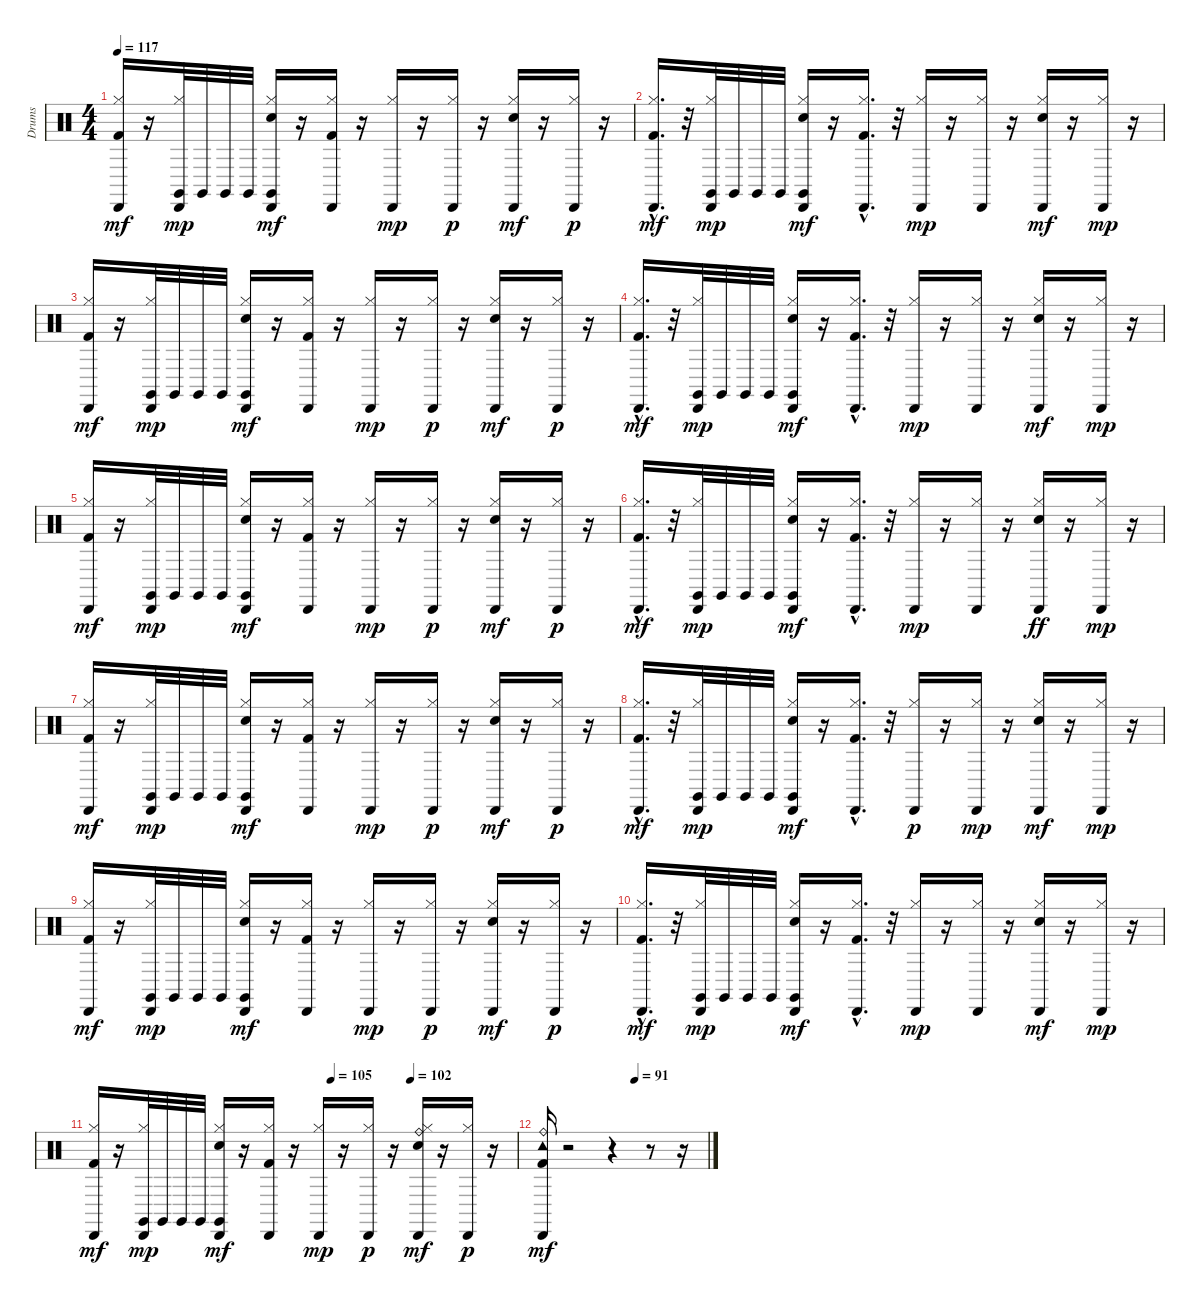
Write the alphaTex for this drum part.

\track ("Drums" "Drums") {instrument percussion}
\staff {score}
\articulation defaults
\ts (4 4)
\tempo 117
\clef neutral
\ks c
("Kick (hit) 2" "Hi-Hat (closed)" "Cabasa (hit)").16{dy mf} r.16 ("Hi-Hat (closed)" "Cabasa (hit)" "Claves (hit)").32{dy mp} "Claves (hit)".32 "Claves (hit)".32 "Claves (hit)".32 ("Electric Snare (hit)" "Hi-Hat (closed)" "Cabasa (hit)" "Claves (hit)").16{dy mf} r.16 ("Kick (hit) 2" "Hi-Hat (closed)" "Cabasa (hit)").16 r.16 ("Hi-Hat (closed)" "Cabasa (hit)").16{dy mp} r.16 ("Hi-Hat (closed)" "Cabasa (hit)").16{dy p} r.16 ("Electric Snare (hit)" "Hi-Hat (closed)" "Cabasa (hit)").16{dy mf} r.16 ("Hi-Hat (closed)" "Cabasa (hit)").16{dy p} r.16 |
("Kick (hit) 2"{hac} "Hi-Hat (closed)" "Cabasa (hit)").16{d dy mf} r.32 ("Hi-Hat (closed)" "Cabasa (hit)" "Claves (hit)").32{dy mp} "Claves (hit)".32 "Claves (hit)".32 "Claves (hit)".32 ("Electric Snare (hit)" "Hi-Hat (closed)" "Cabasa (hit)" "Claves (hit)").16{dy mf} r.16 ("Kick (hit) 2"{hac} "Hi-Hat (closed)" "Cabasa (hit)").16{d} r.32 ("Hi-Hat (closed)" "Cabasa (hit)").16{dy mp} r.16 ("Hi-Hat (closed)" "Cabasa (hit)").16 r.16 ("Electric Snare (hit)" "Hi-Hat (closed)" "Cabasa (hit)").16{dy mf} r.16 ("Hi-Hat (closed)" "Cabasa (hit)").16{dy mp} r.16 |
("Kick (hit) 2" "Hi-Hat (closed)" "Cabasa (hit)").16{dy mf} r.16 ("Hi-Hat (closed)" "Cabasa (hit)" "Claves (hit)").32{dy mp} "Claves (hit)".32 "Claves (hit)".32 "Claves (hit)".32 ("Electric Snare (hit)" "Hi-Hat (closed)" "Cabasa (hit)" "Claves (hit)").16{dy mf} r.16 ("Kick (hit) 2" "Hi-Hat (closed)" "Cabasa (hit)").16 r.16 ("Hi-Hat (closed)" "Cabasa (hit)").16{dy mp} r.16 ("Hi-Hat (closed)" "Cabasa (hit)").16{dy p} r.16 ("Electric Snare (hit)" "Hi-Hat (closed)" "Cabasa (hit)").16{dy mf} r.16 ("Hi-Hat (closed)" "Cabasa (hit)").16{dy p} r.16 |
("Kick (hit) 2"{hac} "Hi-Hat (closed)" "Cabasa (hit)").16{d dy mf} r.32 ("Hi-Hat (closed)" "Cabasa (hit)" "Claves (hit)").32{dy mp} "Claves (hit)".32 "Claves (hit)".32 "Claves (hit)".32 ("Electric Snare (hit)" "Hi-Hat (closed)" "Cabasa (hit)" "Claves (hit)").16{dy mf} r.16 ("Kick (hit) 2"{hac} "Hi-Hat (closed)" "Cabasa (hit)").16{d} r.32 ("Hi-Hat (closed)" "Cabasa (hit)").16{dy mp} r.16 ("Hi-Hat (closed)" "Cabasa (hit)").16 r.16 ("Electric Snare (hit)" "Hi-Hat (closed)" "Cabasa (hit)").16{dy mf} r.16 ("Hi-Hat (closed)" "Cabasa (hit)").16{dy mp} r.16 |
("Kick (hit) 2" "Hi-Hat (closed)" "Cabasa (hit)").16{dy mf} r.16 ("Hi-Hat (closed)" "Cabasa (hit)" "Claves (hit)").32{dy mp} "Claves (hit)".32 "Claves (hit)".32 "Claves (hit)".32 ("Electric Snare (hit)" "Hi-Hat (closed)" "Cabasa (hit)" "Claves (hit)").16{dy mf} r.16 ("Kick (hit) 2" "Hi-Hat (closed)" "Cabasa (hit)").16 r.16 ("Hi-Hat (closed)" "Cabasa (hit)").16{dy mp} r.16 ("Hi-Hat (closed)" "Cabasa (hit)").16{dy p} r.16 ("Electric Snare (hit)" "Hi-Hat (closed)" "Cabasa (hit)").16{dy mf} r.16 ("Hi-Hat (closed)" "Cabasa (hit)").16{dy p} r.16 |
("Kick (hit) 2"{hac} "Hi-Hat (closed)" "Cabasa (hit)").16{d dy mf} r.32 ("Hi-Hat (closed)" "Cabasa (hit)" "Claves (hit)").32{dy mp} "Claves (hit)".32 "Claves (hit)".32 "Claves (hit)".32 ("Electric Snare (hit)" "Hi-Hat (closed)" "Cabasa (hit)" "Claves (hit)").16{dy mf} r.16 ("Kick (hit) 2"{hac} "Hi-Hat (closed)" "Cabasa (hit)").16{d} r.32 ("Hi-Hat (closed)" "Cabasa (hit)").16{dy mp} r.16 ("Hi-Hat (closed)" "Cabasa (hit)").16 r.16 ("Electric Snare (hit)" "Hi-Hat (closed)" "Cabasa (hit)").16{dy ff} r.16 ("Hi-Hat (closed)" "Cabasa (hit)").16{dy mp} r.16 |
("Kick (hit) 2" "Hi-Hat (closed)" "Cabasa (hit)").16{dy mf} r.16 ("Hi-Hat (closed)" "Cabasa (hit)" "Claves (hit)").32{dy mp} "Claves (hit)".32 "Claves (hit)".32 "Claves (hit)".32 ("Electric Snare (hit)" "Hi-Hat (closed)" "Cabasa (hit)" "Claves (hit)").16{dy mf} r.16 ("Kick (hit) 2" "Hi-Hat (closed)" "Cabasa (hit)").16 r.16 ("Hi-Hat (closed)" "Cabasa (hit)").16{dy mp} r.16 ("Hi-Hat (closed)" "Cabasa (hit)").16{dy p} r.16 ("Electric Snare (hit)" "Hi-Hat (closed)" "Cabasa (hit)").16{dy mf} r.16 ("Hi-Hat (closed)" "Cabasa (hit)").16{dy p} r.16 |
("Kick (hit) 2"{hac} "Hi-Hat (closed)" "Cabasa (hit)").16{d dy mf} r.32 ("Hi-Hat (closed)" "Cabasa (hit)" "Claves (hit)").32{dy mp} "Claves (hit)".32 "Claves (hit)".32 "Claves (hit)".32 ("Electric Snare (hit)" "Hi-Hat (closed)" "Cabasa (hit)" "Claves (hit)").16{dy mf} r.16 ("Kick (hit) 2"{hac} "Hi-Hat (closed)" "Cabasa (hit)").16{d} r.32 ("Hi-Hat (closed)" "Cabasa (hit)").16{dy p} r.16 ("Hi-Hat (closed)" "Cabasa (hit)").16{dy mp} r.16 ("Electric Snare (hit)" "Hi-Hat (closed)" "Cabasa (hit)").16{dy mf} r.16 ("Hi-Hat (closed)" "Cabasa (hit)").16{dy mp} r.16 |
("Kick (hit) 2" "Hi-Hat (closed)" "Cabasa (hit)").16{dy mf} r.16 ("Hi-Hat (closed)" "Cabasa (hit)" "Claves (hit)").32{dy mp} "Claves (hit)".32 "Claves (hit)".32 "Claves (hit)".32 ("Electric Snare (hit)" "Hi-Hat (closed)" "Cabasa (hit)" "Claves (hit)").16{dy mf} r.16 ("Kick (hit) 2" "Hi-Hat (closed)" "Cabasa (hit)").16 r.16 ("Hi-Hat (closed)" "Cabasa (hit)").16{dy mp} r.16 ("Hi-Hat (closed)" "Cabasa (hit)").16{dy p} r.16 ("Electric Snare (hit)" "Hi-Hat (closed)" "Cabasa (hit)").16{dy mf} r.16 ("Hi-Hat (closed)" "Cabasa (hit)").16{dy p} r.16 |
("Kick (hit) 2"{hac} "Hi-Hat (closed)" "Cabasa (hit)").16{d dy mf} r.32 ("Hi-Hat (closed)" "Cabasa (hit)" "Claves (hit)").32{dy mp} "Claves (hit)".32 "Claves (hit)".32 "Claves (hit)".32 ("Electric Snare (hit)" "Hi-Hat (closed)" "Cabasa (hit)" "Claves (hit)").16{dy mf} r.16 ("Kick (hit) 2"{hac} "Hi-Hat (closed)" "Cabasa (hit)").16{d} r.32 ("Hi-Hat (closed)" "Cabasa (hit)").16{dy mp} r.16 ("Hi-Hat (closed)" "Cabasa (hit)").16 r.16 ("Electric Snare (hit)" "Hi-Hat (closed)" "Cabasa (hit)").16{dy mf} r.16 ("Hi-Hat (closed)" "Cabasa (hit)").16{dy mp} r.16 |
\tempo (105 0.5625)
\tempo (102 0.75)
("Kick (hit) 2" "Hi-Hat (closed)" "Cabasa (hit)").16{dy mf} r.16 ("Hi-Hat (closed)" "Cabasa (hit)" "Claves (hit)").32{dy mp} "Claves (hit)".32 "Claves (hit)".32 "Claves (hit)".32 ("Electric Snare (hit)" "Hi-Hat (closed)" "Cabasa (hit)" "Claves (hit)").16{dy mf} r.16 ("Kick (hit) 2" "Hi-Hat (closed)" "Cabasa (hit)").16 r.16 ("Hi-Hat (closed)" "Cabasa (hit)").16{dy mp} r.16 ("Hi-Hat (closed)" "Cabasa (hit)").16{dy p} r.16 ("Electric Snare (hit)" "Hi-Hat (closed)" "Ride (bell)" "Cabasa (hit)").16{dy mf} r.16 ("Hi-Hat (closed)" "Cabasa (hit)").16{dy p} r.16 |
\tempo (91 0.5625)
("Kick (hit) 2" "Ride (bell)" "Tambourine (hit)" "Cabasa (hit)").16{dy mf} r.2 r.4 r.8 r.16
